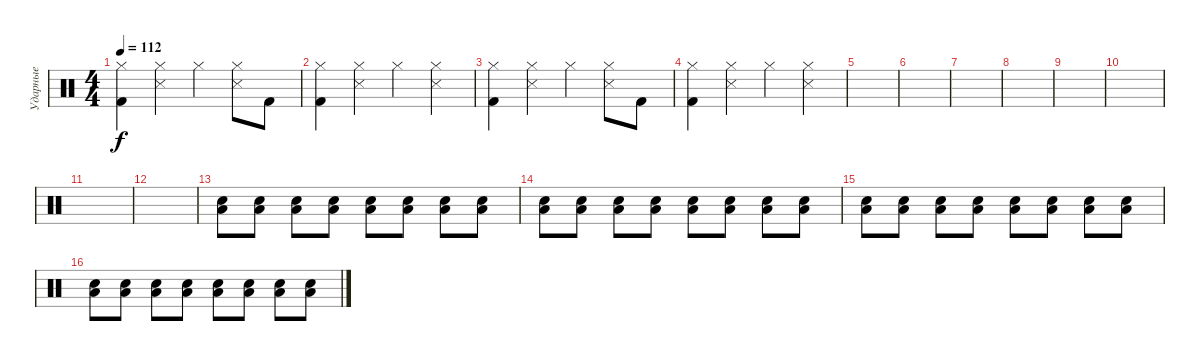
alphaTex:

\track ("Ударные" "Ударные") {instrument percussion}
\staff {score}
\articulation defaults
\ts (4 4)
\tempo 112
\clef neutral
\ks c
("Hi-Hat (closed)" "Kick (hit) 2").4{dy f} ("Hi-Hat (closed)" "Snare (side stick) 3").4 "Hi-Hat (closed)".4 ("Hi-Hat (closed)" "Snare (side stick) 3").8 "Kick (hit) 2".8 |
("Hi-Hat (closed)" "Kick (hit) 2").4 ("Hi-Hat (closed)" "Snare (side stick) 3").4 "Hi-Hat (closed)".4 ("Hi-Hat (closed)" "Snare (side stick) 3").4 |
("Hi-Hat (closed)" "Kick (hit) 2").4 ("Hi-Hat (closed)" "Snare (side stick) 3").4 "Hi-Hat (closed)".4 ("Hi-Hat (closed)" "Snare (side stick) 3").8 "Kick (hit) 2".8 |
("Hi-Hat (closed)" "Kick (hit) 2").4 ("Hi-Hat (closed)" "Snare (side stick) 3").4 "Hi-Hat (closed)".4 ("Hi-Hat (closed)" "Snare (side stick) 3").4 |
|
|
|
|
|
|
|
|
("Snare (hit) 2" "Low Floor Tom (hit)").8{volume 9} ("Snare (hit) 2" "Low Floor Tom (hit)").8 ("Snare (hit) 2" "Low Floor Tom (hit)").8 ("Snare (hit) 2" "Low Floor Tom (hit)").8 ("Snare (hit) 2" "Low Floor Tom (hit)").8 ("Snare (hit) 2" "Low Floor Tom (hit)").8 ("Snare (hit) 2" "Low Floor Tom (hit)").8 ("Snare (hit) 2" "Low Floor Tom (hit)").8 |
("Snare (hit) 2" "Low Floor Tom (hit)").8 ("Snare (hit) 2" "Low Floor Tom (hit)").8 ("Snare (hit) 2" "Low Floor Tom (hit)").8 ("Snare (hit) 2" "Low Floor Tom (hit)").8 ("Snare (hit) 2" "Low Floor Tom (hit)").8 ("Snare (hit) 2" "Low Floor Tom (hit)").8 ("Snare (hit) 2" "Low Floor Tom (hit)").8 ("Snare (hit) 2" "Low Floor Tom (hit)").8 |
("Snare (hit) 2" "Low Floor Tom (hit)").8 ("Snare (hit) 2" "Low Floor Tom (hit)").8 ("Snare (hit) 2" "Low Floor Tom (hit)").8 ("Snare (hit) 2" "Low Floor Tom (hit)").8 ("Snare (hit) 2" "Low Floor Tom (hit)").8 ("Snare (hit) 2" "Low Floor Tom (hit)").8 ("Snare (hit) 2" "Low Floor Tom (hit)").8 ("Snare (hit) 2" "Low Floor Tom (hit)").8 |
("Snare (hit) 2" "Low Floor Tom (hit)").8 ("Snare (hit) 2" "Low Floor Tom (hit)").8 ("Snare (hit) 2" "Low Floor Tom (hit)").8 ("Snare (hit) 2" "Low Floor Tom (hit)").8 ("Snare (hit) 2" "Low Floor Tom (hit)").8 ("Snare (hit) 2" "Low Floor Tom (hit)").8 ("Snare (hit) 2" "Low Floor Tom (hit)").8 ("Snare (hit) 2" "Low Floor Tom (hit)").8
